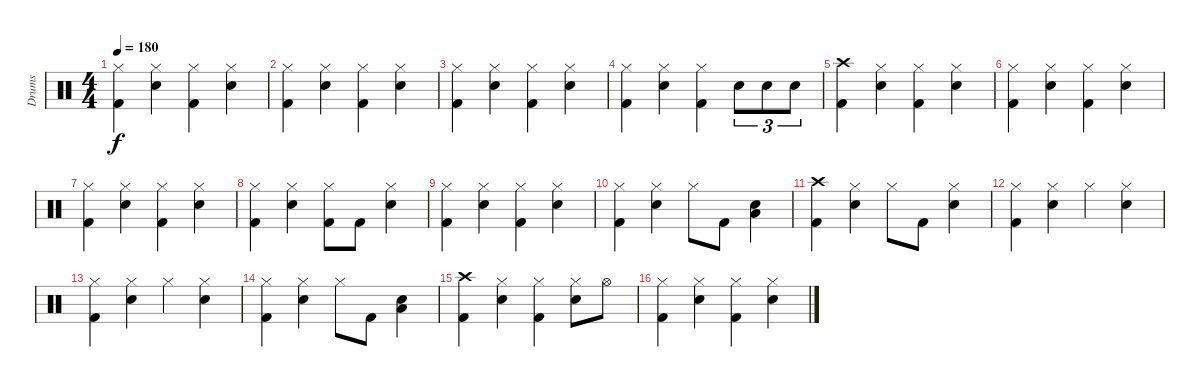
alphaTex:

\track ("Drums" "Drums") {instrument percussion}
\staff {score}
\articulation defaults
\ts (4 4)
\tempo 180
\clef neutral
\ks c
("Hi-Hat (closed)" "Kick (hit) 2").4{dy f} ("Hi-Hat (closed)" "Snare (hit) 2").4 ("Hi-Hat (closed)" "Kick (hit) 2").4 ("Hi-Hat (closed)" "Snare (hit) 2").4 |
("Hi-Hat (closed)" "Kick (hit) 2").4 ("Hi-Hat (closed)" "Snare (hit) 2").4 ("Hi-Hat (closed)" "Kick (hit) 2").4 ("Hi-Hat (closed)" "Snare (hit) 2").4 |
("Hi-Hat (closed)" "Kick (hit) 2").4 ("Hi-Hat (closed)" "Snare (hit) 2").4 ("Hi-Hat (closed)" "Kick (hit) 2").4 ("Hi-Hat (closed)" "Snare (hit) 2").4 |
("Hi-Hat (closed)" "Kick (hit) 2").4 ("Hi-Hat (closed)" "Snare (hit) 2").4 ("Hi-Hat (closed)" "Kick (hit) 2").4 "Snare (hit) 2".8{tu (3 2)} "Snare (hit) 2".8{tu (3 2)} "Snare (hit) 2".8{tu (3 2)} |
("Crash high (hit)" "Kick (hit) 2").4 ("Hi-Hat (closed)" "Snare (hit) 2").4 ("Hi-Hat (closed)" "Kick (hit) 2").4 ("Hi-Hat (closed)" "Snare (hit) 2").4 |
("Hi-Hat (closed)" "Kick (hit) 2").4 ("Hi-Hat (closed)" "Snare (hit) 2").4 ("Hi-Hat (closed)" "Kick (hit) 2").4 ("Hi-Hat (closed)" "Snare (hit) 2").4 |
("Hi-Hat (closed)" "Kick (hit) 2").4 ("Hi-Hat (closed)" "Snare (hit) 2").4 ("Hi-Hat (closed)" "Kick (hit) 2").4 ("Hi-Hat (closed)" "Snare (hit) 2").4 |
("Hi-Hat (closed)" "Kick (hit) 2").4 ("Hi-Hat (closed)" "Snare (hit) 2").4 ("Hi-Hat (closed)" "Kick (hit) 2").8 "Kick (hit) 2".8 ("Hi-Hat (closed)" "Snare (hit) 2").4 |
("Hi-Hat (closed)" "Kick (hit) 2").4 ("Hi-Hat (closed)" "Snare (hit) 2").4 ("Hi-Hat (closed)" "Kick (hit) 2").4 ("Hi-Hat (closed)" "Snare (hit) 2").4 |
("Hi-Hat (closed)" "Kick (hit) 2").4 ("Hi-Hat (closed)" "Snare (hit) 2").4 "Hi-Hat (closed)".8 "Kick (hit) 2".8 ("Snare (hit) 2" "Low Tom (hit)").4 |
("Crash high (hit)" "Kick (hit) 2").4 ("Hi-Hat (closed)" "Snare (hit) 2").4 "Hi-Hat (closed)".8 "Kick (hit) 2".8 ("Hi-Hat (closed)" "Snare (hit) 2").4 |
("Hi-Hat (closed)" "Kick (hit) 2").4 ("Hi-Hat (closed)" "Snare (hit) 2").4 "Hi-Hat (closed)".4 ("Hi-Hat (closed)" "Snare (hit) 2").4 |
("Hi-Hat (closed)" "Kick (hit) 2").4 ("Hi-Hat (closed)" "Snare (hit) 2").4 "Hi-Hat (closed)".4 ("Hi-Hat (closed)" "Snare (hit) 2").4 |
("Hi-Hat (closed)" "Kick (hit) 2").4 ("Hi-Hat (closed)" "Snare (hit) 2").4 "Hi-Hat (closed)".8 "Kick (hit) 2".8 ("Snare (hit) 2" "Low Tom (hit)").4 |
("Crash high (hit)" "Kick (hit) 2").4 ("Hi-Hat (closed)" "Snare (hit) 2").4 ("Hi-Hat (closed)" "Kick (hit) 2").4 ("Hi-Hat (closed)" "Snare (hit) 2").8 "Hi-Hat (open)".8 |
("Hi-Hat (closed)" "Kick (hit) 2").4 ("Hi-Hat (closed)" "Snare (hit) 2").4 ("Hi-Hat (closed)" "Kick (hit) 2").4 ("Hi-Hat (closed)" "Snare (hit) 2").4
